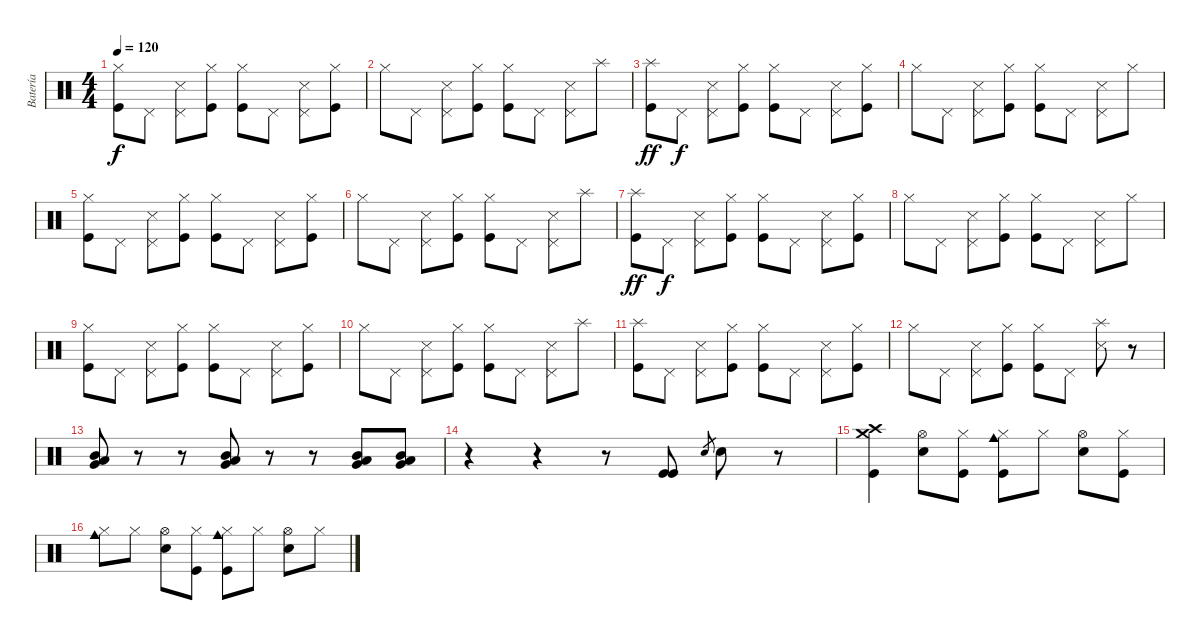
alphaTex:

\track ("Batería" "Batería") {instrument percussion}
\staff {score}
\articulation defaults
\ts (4 4)
\tempo 120
\clef neutral
\ks c
("Hi-Hat (closed)" "Kick (hit)").8{dy f} "Pedal Hi-Hat (hit)".8 ("Pedal Hi-Hat (hit)" "Snare (side stick) 3").8 ("Hi-Hat (closed)" "Kick (hit)").8 ("Hi-Hat (closed)" "Kick (hit)").8 "Pedal Hi-Hat (hit)".8 ("Pedal Hi-Hat (hit)" "Snare (side stick) 3").8 ("Hi-Hat (closed)" "Kick (hit)").8 |
"Hi-Hat (closed)".8 "Pedal Hi-Hat (hit)".8 ("Pedal Hi-Hat (hit)" "Snare (side stick) 3").8 ("Hi-Hat (closed)" "Kick (hit)").8 ("Hi-Hat (closed)" "Kick (hit)").8 "Pedal Hi-Hat (hit)".8 ("Pedal Hi-Hat (hit)" "Snare (side stick) 3").8 "Splash (hit)".8 |
("Splash (hit)" "Kick (hit)").8{dy ff} "Pedal Hi-Hat (hit)".8{dy f} ("Pedal Hi-Hat (hit)" "Snare (side stick) 3").8 ("Hi-Hat (closed)" "Kick (hit)").8 ("Hi-Hat (closed)" "Kick (hit)").8 "Pedal Hi-Hat (hit)".8 ("Pedal Hi-Hat (hit)" "Snare (side stick) 3").8 ("Hi-Hat (closed)" "Kick (hit)").8 |
"Hi-Hat (closed)".8 "Pedal Hi-Hat (hit)".8 ("Pedal Hi-Hat (hit)" "Snare (side stick) 3").8 ("Hi-Hat (closed)" "Kick (hit)").8 ("Hi-Hat (closed)" "Kick (hit)").8 "Pedal Hi-Hat (hit)".8 ("Pedal Hi-Hat (hit)" "Snare (side stick) 3").8 "Hi-Hat (closed)".8 |
("Hi-Hat (closed)" "Kick (hit)").8 "Pedal Hi-Hat (hit)".8 ("Pedal Hi-Hat (hit)" "Snare (side stick) 3").8 ("Hi-Hat (closed)" "Kick (hit)").8 ("Hi-Hat (closed)" "Kick (hit)").8 "Pedal Hi-Hat (hit)".8 ("Pedal Hi-Hat (hit)" "Snare (side stick) 3").8 ("Hi-Hat (closed)" "Kick (hit)").8 |
"Hi-Hat (closed)".8 "Pedal Hi-Hat (hit)".8 ("Pedal Hi-Hat (hit)" "Snare (side stick) 3").8 ("Hi-Hat (closed)" "Kick (hit)").8 ("Hi-Hat (closed)" "Kick (hit)").8 "Pedal Hi-Hat (hit)".8 ("Pedal Hi-Hat (hit)" "Snare (side stick) 3").8 "Splash (hit)".8 |
("Splash (hit)" "Kick (hit)").8{dy ff} "Pedal Hi-Hat (hit)".8{dy f} ("Pedal Hi-Hat (hit)" "Snare (side stick) 3").8 ("Hi-Hat (closed)" "Kick (hit)").8 ("Hi-Hat (closed)" "Kick (hit)").8 "Pedal Hi-Hat (hit)".8 ("Pedal Hi-Hat (hit)" "Snare (side stick) 3").8 ("Hi-Hat (closed)" "Kick (hit)").8 |
"Hi-Hat (closed)".8 "Pedal Hi-Hat (hit)".8 ("Pedal Hi-Hat (hit)" "Snare (side stick) 3").8 ("Hi-Hat (closed)" "Kick (hit)").8 ("Hi-Hat (closed)" "Kick (hit)").8 "Pedal Hi-Hat (hit)".8 ("Pedal Hi-Hat (hit)" "Snare (side stick) 3").8 "Hi-Hat (closed)".8 |
("Hi-Hat (closed)" "Kick (hit)").8 "Pedal Hi-Hat (hit)".8 ("Pedal Hi-Hat (hit)" "Snare (side stick) 3").8 ("Hi-Hat (closed)" "Kick (hit)").8 ("Hi-Hat (closed)" "Kick (hit)").8 "Pedal Hi-Hat (hit)".8 ("Pedal Hi-Hat (hit)" "Snare (side stick) 3").8 ("Hi-Hat (closed)" "Kick (hit)").8 |
"Hi-Hat (closed)".8 "Pedal Hi-Hat (hit)".8 ("Pedal Hi-Hat (hit)" "Snare (side stick) 3").8 ("Hi-Hat (closed)" "Kick (hit)").8 ("Hi-Hat (closed)" "Kick (hit)").8 "Pedal Hi-Hat (hit)".8 ("Pedal Hi-Hat (hit)" "Snare (side stick) 3").8 "Splash (hit)".8 |
("Splash (hit)" "Kick (hit)").8 "Pedal Hi-Hat (hit)".8 ("Pedal Hi-Hat (hit)" "Snare (side stick) 3").8 ("Hi-Hat (closed)" "Kick (hit)").8 ("Hi-Hat (closed)" "Kick (hit)").8 "Pedal Hi-Hat (hit)".8 ("Pedal Hi-Hat (hit)" "Snare (side stick) 3").8 ("Hi-Hat (closed)" "Kick (hit)").8 |
"Hi-Hat (closed)".8 "Pedal Hi-Hat (hit)".8 ("Pedal Hi-Hat (hit)" "Snare (side stick) 3").8 ("Hi-Hat (closed)" "Kick (hit)").8 ("Hi-Hat (closed)" "Kick (hit)").8 "Pedal Hi-Hat (hit)".8 ("Splash (hit)" "Snare (side stick) 3").8 r.8 |
("Mid Tom (hit)" "Low Tom (hit)" "Very Low Tom (hit)").8 r.8 r.8 ("Mid Tom (hit)" "Low Tom (hit)" "Very Low Tom (hit)").8 r.8 r.8 ("Mid Tom (hit)" "Low Tom (hit)" "Very Low Tom (hit)").8 ("Mid Tom (hit)" "Low Tom (hit)" "Very Low Tom (hit)").8 |
r.4 r.4 r.8 ("Kick (hit)" "Kick (hit)").8 "Electric Snare (hit)".8{gr} "Electric Snare (hit)".8 r.8 |
("Crash medium (hit)" "Crash high (hit)" "Kick (hit)").4 ("Hi-Hat (open)" "Electric Snare (hit)").8 ("Hi-Hat (closed)" "Kick (hit)").8 ("Hi-Hat (closed)" "Cowbell medium (hit)" "Kick (hit)").8 "Hi-Hat (closed)".8 ("Hi-Hat (open)" "Electric Snare (hit)").8 ("Hi-Hat (closed)" "Kick (hit)").8 |
("Hi-Hat (closed)" "Cowbell medium (hit)").8 "Hi-Hat (closed)".8 ("Hi-Hat (open)" "Electric Snare (hit)").8 ("Hi-Hat (closed)" "Kick (hit)").8 ("Hi-Hat (closed)" "Cowbell medium (hit)" "Kick (hit)").8 "Hi-Hat (closed)".8 ("Hi-Hat (open)" "Electric Snare (hit)").8 "Hi-Hat (closed)".8
